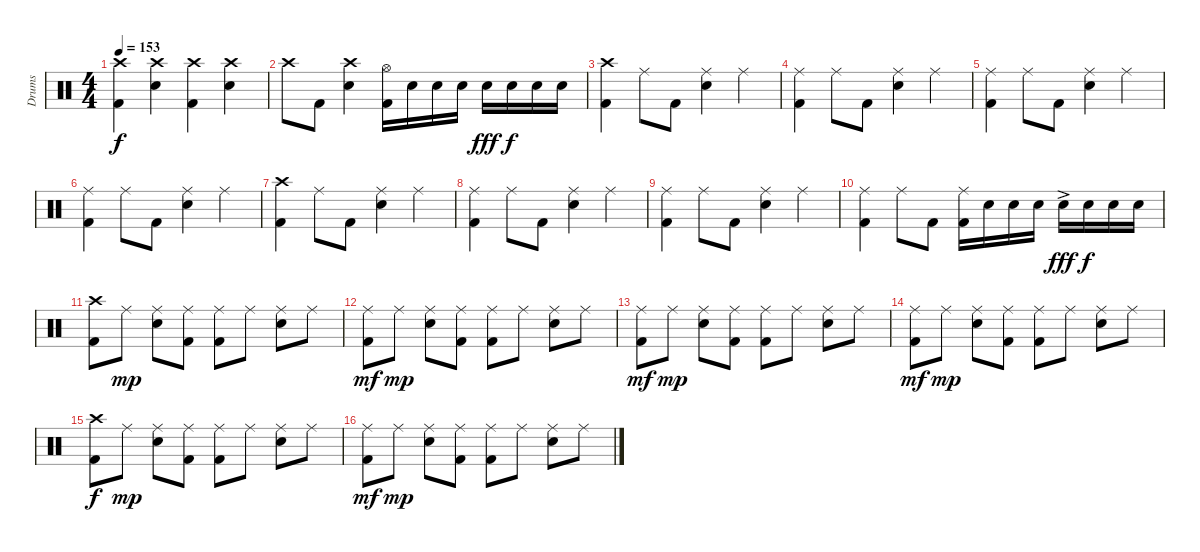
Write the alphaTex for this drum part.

\track ("Drums" "Drums") {instrument percussion}
\staff {score}
\articulation defaults
\ts (4 4)
\tempo 153
\clef neutral
\ks c
("Crash high (hit)" "Kick (hit) 2").4{dy f} ("Crash high (hit)" "Electric Snare (hit)").4 ("Crash high (hit)" "Kick (hit) 2").4 ("Crash high (hit)" "Electric Snare (hit)").4 |
"Crash high (hit)".8 "Kick (hit) 2".8 ("Crash high (hit)" "Electric Snare (hit)").4 ("Hi-Hat (open)" "Kick (hit) 2").16 "Electric Snare (hit)".16 "Electric Snare (hit)".16 "Electric Snare (hit)".16 "Electric Snare (hit)".16{dy fff} "Electric Snare (hit)".16{dy f} "Electric Snare (hit)".16 "Electric Snare (hit)".16 |
("Crash high (hit)" "Kick (hit) 2").4 "Ride (middle)".8 "Kick (hit) 2".8 ("Ride (middle)" "Electric Snare (hit)").4 "Ride (middle)".4 |
("Ride (middle)" "Kick (hit) 2").4 "Ride (middle)".8 "Kick (hit) 2".8 ("Ride (middle)" "Electric Snare (hit)").4 "Ride (middle)".4 |
("Ride (middle)" "Kick (hit) 2").4 "Ride (middle)".8 "Kick (hit) 2".8 ("Ride (middle)" "Electric Snare (hit)").4 "Ride (middle)".4 |
("Ride (middle)" "Kick (hit) 2").4 "Ride (middle)".8 "Kick (hit) 2".8 ("Ride (middle)" "Electric Snare (hit)").4 "Ride (middle)".4 |
("Crash high (hit)" "Kick (hit) 2").4 "Ride (middle)".8 "Kick (hit) 2".8 ("Ride (middle)" "Electric Snare (hit)").4 "Ride (middle)".4 |
("Ride (middle)" "Kick (hit) 2").4 "Ride (middle)".8 "Kick (hit) 2".8 ("Ride (middle)" "Electric Snare (hit)").4 "Ride (middle)".4 |
("Ride (middle)" "Kick (hit) 2").4 "Ride (middle)".8 "Kick (hit) 2".8 ("Ride (middle)" "Electric Snare (hit)").4 "Ride (middle)".4 |
("Ride (middle)" "Kick (hit) 2").4 "Ride (middle)".8 "Kick (hit) 2".8 ("Ride (middle)" "Kick (hit) 2").16 "Electric Snare (hit)".16 "Electric Snare (hit)".16 "Electric Snare (hit)".16 "Electric Snare (hit)"{ac}.16{dy fff} "Electric Snare (hit)".16{dy f} "Electric Snare (hit)".16 "Electric Snare (hit)".16 |
("Crash high (hit)" "Kick (hit) 2").8 "Ride (middle)".8{dy mp} ("Ride (middle)" "Electric Snare (hit)").8 ("Ride (middle)" "Kick (hit) 2").8 ("Ride (middle)" "Kick (hit) 2").8 "Ride (middle)".8 ("Ride (middle)" "Electric Snare (hit)").8 "Ride (middle)".8 |
("Ride (middle)" "Kick (hit) 2").8{dy mf} "Ride (middle)".8{dy mp} ("Ride (middle)" "Electric Snare (hit)").8 ("Ride (middle)" "Kick (hit) 2").8 ("Ride (middle)" "Kick (hit) 2").8 "Ride (middle)".8 ("Ride (middle)" "Electric Snare (hit)").8 "Ride (middle)".8 |
("Ride (middle)" "Kick (hit) 2").8{dy mf} "Ride (middle)".8{dy mp} ("Ride (middle)" "Electric Snare (hit)").8 ("Ride (middle)" "Kick (hit) 2").8 ("Ride (middle)" "Kick (hit) 2").8 "Ride (middle)".8 ("Ride (middle)" "Electric Snare (hit)").8 "Ride (middle)".8 |
("Ride (middle)" "Kick (hit) 2").8{dy mf} "Ride (middle)".8{dy mp} ("Ride (middle)" "Electric Snare (hit)").8 ("Ride (middle)" "Kick (hit) 2").8 ("Ride (middle)" "Kick (hit) 2").8 "Ride (middle)".8 ("Ride (middle)" "Electric Snare (hit)").8 "Ride (middle)".8 |
("Crash high (hit)" "Kick (hit) 2").8{dy f} "Ride (middle)".8{dy mp} ("Ride (middle)" "Electric Snare (hit)").8 ("Ride (middle)" "Kick (hit) 2").8 ("Ride (middle)" "Kick (hit) 2").8 "Ride (middle)".8 ("Ride (middle)" "Electric Snare (hit)").8 "Ride (middle)".8 |
("Ride (middle)" "Kick (hit) 2").8{dy mf} "Ride (middle)".8{dy mp} ("Ride (middle)" "Electric Snare (hit)").8 ("Ride (middle)" "Kick (hit) 2").8 ("Ride (middle)" "Kick (hit) 2").8 "Ride (middle)".8 ("Ride (middle)" "Electric Snare (hit)").8 "Ride (middle)".8
